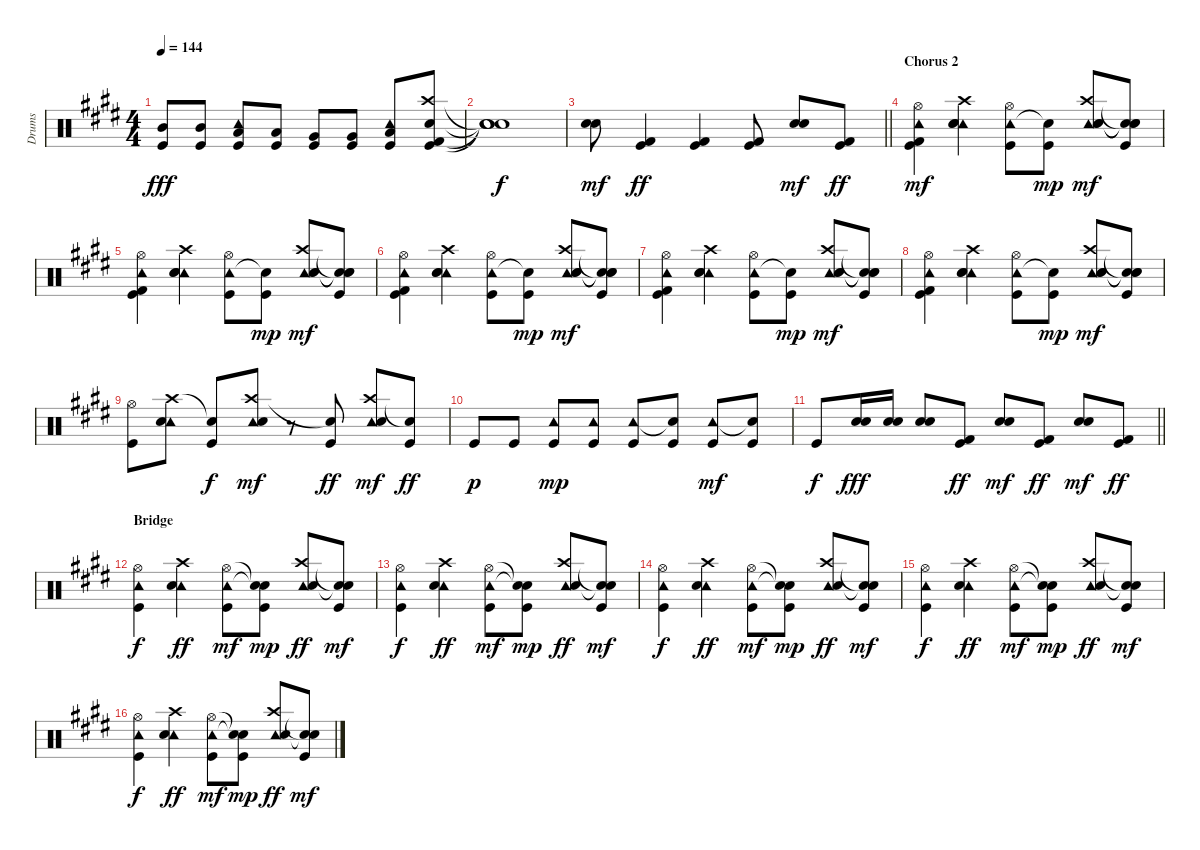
\track ("Drums" "Drums") {instrument percussion}
\staff {score}
\articulation defaults
\ts (4 4)
\tempo 144
\clef neutral
\ks c#minor
("Mid Tom (hit)" "Kick (hit)").8{dy fff} ("Mid Tom (hit)" "Kick (hit)").8 ("Tambourine (hit)" "Low Tom (hit)" "Kick (hit)").8 ("Low Tom (hit)" "Kick (hit)").8 ("Very Low Tom (hit)" "Kick (hit)").8 ("Very Low Tom (hit)" "Kick (hit)").8 ("Tambourine (hit)" "Low Floor Tom (hit)" "Kick (hit)").8 ("Crash high (hit)" "Snare (hit) 2" "Kick (hit) 2" "Kick (hit)").8 |
("Snare (hit)"{t} "Snare (hit)"{t} "Snare (hit)"{t} "Snare (hit)"{t}).1{dy f} |
\barLineRight lightlight
("Snare (hit) 2" "Electric Snare (hit)").8{dy mf} ("Kick (hit) 2" "Kick (hit)").4{dy ff} ("Kick (hit) 2" "Kick (hit)").4 ("Kick (hit) 2" "Kick (hit)").8 ("Snare (hit) 2" "Electric Snare (hit)").8{dy mf} ("Kick (hit) 2" "Kick (hit)").8{dy ff} |
\section ("" "Chorus 2")
("Tambourine (hit)" "Hi-Hat (open)" "Kick (hit) 2" "Kick (hit)").4{dy mf} ("Crash high (hit)" "Tambourine (hit)" "Snare (hit) 2" "Electric Snare (hit)").4 ("Tambourine (hit)" "Hi-Hat (open)" "Kick (hit)").8 ("Snare (hit)"{t} "Kick (hit)").8{dy mp} ("Crash high (hit)" "Tambourine (hit)" "Snare (hit) 2" "Electric Snare (hit)").8{dy mf} ("Snare (hit)"{t} "Snare (hit)"{t} "Snare (hit)"{t} "Kick (hit)").8 |
\ks e
("Tambourine (hit)" "Hi-Hat (open)" "Kick (hit) 2" "Kick (hit)").4 ("Crash high (hit)" "Tambourine (hit)" "Snare (hit) 2" "Electric Snare (hit)").4 ("Tambourine (hit)" "Hi-Hat (open)" "Kick (hit)").8 ("Snare (hit)"{t} "Kick (hit)").8{dy mp} ("Crash high (hit)" "Tambourine (hit)" "Snare (hit) 2" "Electric Snare (hit)").8{dy mf} ("Snare (hit)"{t} "Snare (hit)"{t} "Snare (hit)"{t} "Kick (hit)").8 |
\ks c#minor
("Tambourine (hit)" "Hi-Hat (open)" "Kick (hit) 2" "Kick (hit)").4 ("Crash high (hit)" "Tambourine (hit)" "Snare (hit) 2" "Electric Snare (hit)").4 ("Tambourine (hit)" "Hi-Hat (open)" "Kick (hit)").8 ("Snare (hit)"{t} "Kick (hit)").8{dy mp} ("Crash high (hit)" "Tambourine (hit)" "Snare (hit) 2" "Electric Snare (hit)").8{dy mf} ("Snare (hit)"{t} "Snare (hit)"{t} "Snare (hit)"{t} "Kick (hit)").8 |
\ks e
("Tambourine (hit)" "Hi-Hat (open)" "Kick (hit) 2" "Kick (hit)").4 ("Crash high (hit)" "Tambourine (hit)" "Snare (hit) 2" "Electric Snare (hit)").4 ("Tambourine (hit)" "Hi-Hat (open)" "Kick (hit)").8 ("Snare (hit)"{t} "Kick (hit)").8{dy mp} ("Crash high (hit)" "Tambourine (hit)" "Snare (hit) 2" "Electric Snare (hit)").8{dy mf} ("Snare (hit)"{t} "Snare (hit)"{t} "Snare (hit)"{t} "Kick (hit)").8 |
\ks c#minor
("Tambourine (hit)" "Hi-Hat (open)" "Kick (hit) 2" "Kick (hit)").4 ("Crash high (hit)" "Tambourine (hit)" "Snare (hit) 2" "Electric Snare (hit)").4 ("Tambourine (hit)" "Hi-Hat (open)" "Kick (hit)").8 ("Snare (hit)"{t} "Kick (hit)").8{dy mp} ("Crash high (hit)" "Tambourine (hit)" "Snare (hit) 2" "Electric Snare (hit)").8{dy mf} ("Snare (hit)"{t} "Snare (hit)"{t} "Snare (hit)"{t} "Kick (hit)").8 |
\ks e
("Hi-Hat (open)" "Kick (hit)").8 ("Crash high (hit)" "Tambourine (hit)" "Snare (hit) 2").8 ("Snare (hit)"{t} "Kick (hit)").8{dy f} ("Crash high (hit)" "Tambourine (hit)" "Snare (hit) 2").8{dy mf} r.8 ("Snare (hit)"{t} "Kick (hit)").8{dy ff} ("Crash high (hit)" "Tambourine (hit)" "Snare (hit) 2").8{dy mf} ("Snare (hit)"{t} "Kick (hit)").8{dy ff} |
\ks c#minor "Kick (hit)".8{dy p} "Kick (hit)".8
("Tambourine (hit)" "Kick (hit)").8{dy mp} ("Tambourine (hit)" "Kick (hit)").8 ("Tambourine (hit)" "Kick (hit)").8 ("Snare (hit)"{t} "Kick (hit)").8 ("Tambourine (hit)" "Kick (hit)").8{dy mf} ("Snare (hit)"{t} "Kick (hit)").8 |
\barLineRight lightlight
\ks e "Kick (hit)".8{dy f}
("Electric Snare (hit)" "Snare (hit) 2").16{dy fff} ("Electric Snare (hit)" "Snare (hit) 2").16 ("Electric Snare (hit)" "Snare (hit) 2").8 ("Kick (hit) 2" "Kick (hit)").8{dy ff} ("Snare (hit) 2" "Electric Snare (hit)").8{dy mf} ("Kick (hit) 2" "Kick (hit)").8{dy ff} ("Snare (hit) 2" "Electric Snare (hit)").8{dy mf} ("Kick (hit) 2" "Kick (hit)").8{dy ff} |
\section ("" "Bridge")
\ks c#minor
("Hi-Hat (open)" "Tambourine (hit)" "Kick (hit)").4{dy f} ("Crash high (hit)" "Tambourine (hit)" "Snare (hit) 2").4{dy ff} ("Hi-Hat (open)" "Tambourine (hit)" "Kick (hit)").8{dy mf} ("Snare (hit)"{t} "Snare (hit)"{t} "Kick (hit)").8{dy mp} ("Crash high (hit)" "Tambourine (hit)" "Snare (hit) 2").8{dy ff} ("Snare (hit)"{t} "Snare (hit)"{t} "Kick (hit)").8{dy mf} |
("Hi-Hat (open)" "Tambourine (hit)" "Kick (hit)").4{dy f} ("Crash high (hit)" "Tambourine (hit)" "Snare (hit) 2").4{dy ff} ("Hi-Hat (open)" "Tambourine (hit)" "Kick (hit)").8{dy mf} ("Snare (hit)"{t} "Snare (hit)"{t} "Kick (hit)").8{dy mp} ("Crash high (hit)" "Tambourine (hit)" "Snare (hit) 2").8{dy ff} ("Snare (hit)"{t} "Snare (hit)"{t} "Kick (hit)").8{dy mf} |
("Hi-Hat (open)" "Tambourine (hit)" "Kick (hit)").4{dy f} ("Crash high (hit)" "Tambourine (hit)" "Snare (hit) 2").4{dy ff} ("Hi-Hat (open)" "Tambourine (hit)" "Kick (hit)").8{dy mf} ("Snare (hit)"{t} "Snare (hit)"{t} "Kick (hit)").8{dy mp} ("Crash high (hit)" "Tambourine (hit)" "Snare (hit) 2").8{dy ff} ("Snare (hit)"{t} "Snare (hit)"{t} "Kick (hit)").8{dy mf} |
\ks e
("Hi-Hat (open)" "Tambourine (hit)" "Kick (hit)").4{dy f} ("Crash high (hit)" "Tambourine (hit)" "Snare (hit) 2").4{dy ff} ("Hi-Hat (open)" "Tambourine (hit)" "Kick (hit)").8{dy mf} ("Snare (hit)"{t} "Snare (hit)"{t} "Kick (hit)").8{dy mp} ("Crash high (hit)" "Tambourine (hit)" "Snare (hit) 2").8{dy ff} ("Snare (hit)"{t} "Snare (hit)"{t} "Kick (hit)").8{dy mf} |
\ks c#minor
("Hi-Hat (open)" "Tambourine (hit)" "Kick (hit)").4{dy f} ("Crash high (hit)" "Tambourine (hit)" "Snare (hit) 2").4{dy ff} ("Hi-Hat (open)" "Tambourine (hit)" "Kick (hit)").8{dy mf} ("Snare (hit)"{t} "Snare (hit)"{t} "Kick (hit)").8{dy mp} ("Crash high (hit)" "Tambourine (hit)" "Snare (hit) 2").8{dy ff} ("Snare (hit)"{t} "Snare (hit)"{t} "Kick (hit)").8{dy mf}
